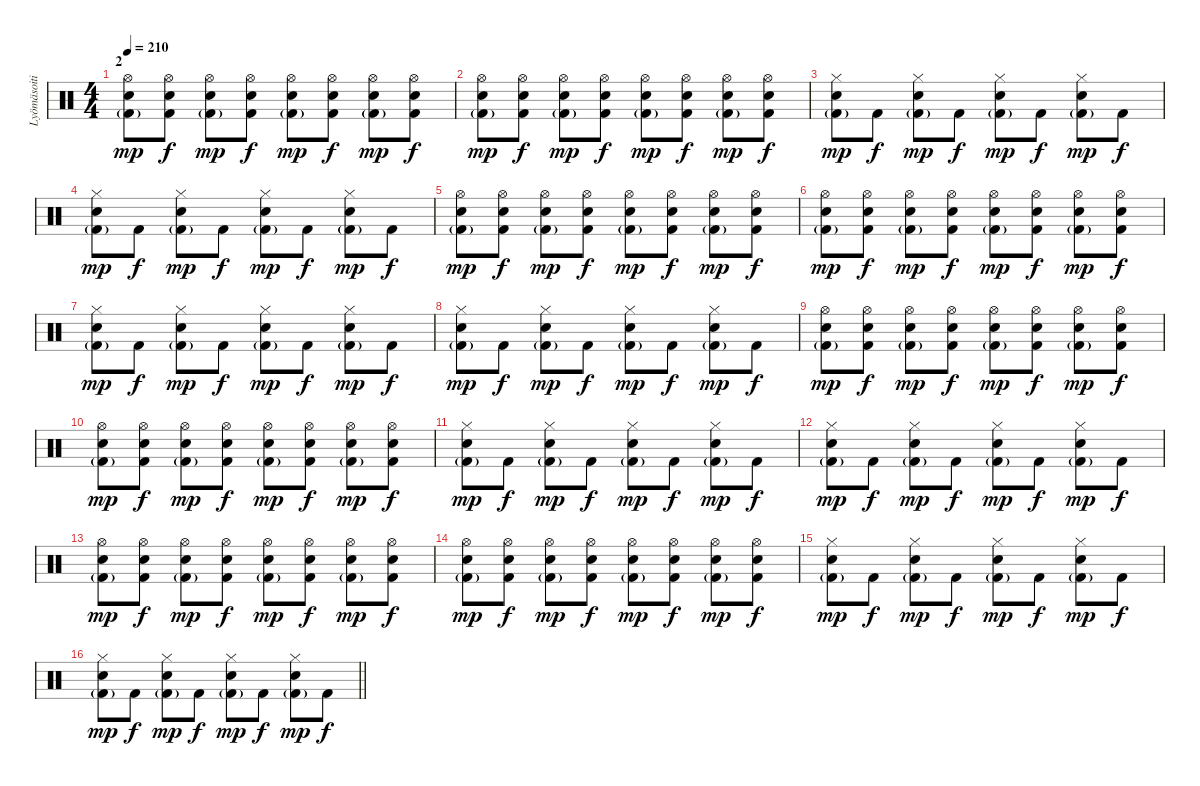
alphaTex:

\track ("Lyömäsoitin" "Lyömäsoiti") {instrument percussion}
\staff {score}
\articulation defaults
\ts (4 4)
\section ("" "2")
\tempo 210
\clef neutral
\ks c
("Hi-Hat (open)" "Snare (hit) 2" "Kick (hit) 2"{g}).8{dy mp} ("Hi-Hat (open)" "Snare (hit) 2" "Kick (hit) 2").8{dy f} ("Hi-Hat (open)" "Snare (hit) 2" "Kick (hit) 2"{g}).8{dy mp} ("Hi-Hat (open)" "Snare (hit) 2" "Kick (hit) 2").8{dy f} ("Hi-Hat (open)" "Snare (hit) 2" "Kick (hit) 2"{g}).8{dy mp} ("Hi-Hat (open)" "Snare (hit) 2" "Kick (hit) 2").8{dy f} ("Hi-Hat (open)" "Snare (hit) 2" "Kick (hit) 2"{g}).8{dy mp} ("Hi-Hat (open)" "Snare (hit) 2" "Kick (hit) 2").8{dy f} |
("Hi-Hat (open)" "Snare (hit) 2" "Kick (hit) 2"{g}).8{dy mp} ("Hi-Hat (open)" "Snare (hit) 2" "Kick (hit) 2").8{dy f} ("Hi-Hat (open)" "Snare (hit) 2" "Kick (hit) 2"{g}).8{dy mp} ("Hi-Hat (open)" "Snare (hit) 2" "Kick (hit) 2").8{dy f} ("Hi-Hat (open)" "Snare (hit) 2" "Kick (hit) 2"{g}).8{dy mp} ("Hi-Hat (open)" "Snare (hit) 2" "Kick (hit) 2").8{dy f} ("Hi-Hat (open)" "Snare (hit) 2" "Kick (hit) 2"{g}).8{dy mp} ("Hi-Hat (open)" "Snare (hit) 2" "Kick (hit) 2").8{dy f} |
("Hi-Hat (closed)" "Snare (hit) 2" "Kick (hit) 2"{g}).8{dy mp} "Kick (hit) 2".8{dy f} ("Hi-Hat (closed)" "Snare (hit) 2" "Kick (hit) 2"{g}).8{dy mp} "Kick (hit) 2".8{dy f} ("Hi-Hat (closed)" "Snare (hit) 2" "Kick (hit) 2"{g}).8{dy mp} "Kick (hit) 2".8{dy f} ("Hi-Hat (closed)" "Snare (hit) 2" "Kick (hit) 2"{g}).8{dy mp} "Kick (hit) 2".8{dy f} |
("Hi-Hat (closed)" "Snare (hit) 2" "Kick (hit) 2"{g}).8{dy mp} "Kick (hit) 2".8{dy f} ("Hi-Hat (closed)" "Snare (hit) 2" "Kick (hit) 2"{g}).8{dy mp} "Kick (hit) 2".8{dy f} ("Hi-Hat (closed)" "Snare (hit) 2" "Kick (hit) 2"{g}).8{dy mp} "Kick (hit) 2".8{dy f} ("Hi-Hat (closed)" "Snare (hit) 2" "Kick (hit) 2"{g}).8{dy mp} "Kick (hit) 2".8{dy f} |
("Hi-Hat (open)" "Snare (hit) 2" "Kick (hit) 2"{g}).8{dy mp} ("Hi-Hat (open)" "Snare (hit) 2" "Kick (hit) 2").8{dy f} ("Hi-Hat (open)" "Snare (hit) 2" "Kick (hit) 2"{g}).8{dy mp} ("Hi-Hat (open)" "Snare (hit) 2" "Kick (hit) 2").8{dy f} ("Hi-Hat (open)" "Snare (hit) 2" "Kick (hit) 2"{g}).8{dy mp} ("Hi-Hat (open)" "Snare (hit) 2" "Kick (hit) 2").8{dy f} ("Hi-Hat (open)" "Snare (hit) 2" "Kick (hit) 2"{g}).8{dy mp} ("Hi-Hat (open)" "Snare (hit) 2" "Kick (hit) 2").8{dy f} |
("Hi-Hat (open)" "Snare (hit) 2" "Kick (hit) 2"{g}).8{dy mp} ("Hi-Hat (open)" "Snare (hit) 2" "Kick (hit) 2").8{dy f} ("Hi-Hat (open)" "Snare (hit) 2" "Kick (hit) 2"{g}).8{dy mp} ("Hi-Hat (open)" "Snare (hit) 2" "Kick (hit) 2").8{dy f} ("Hi-Hat (open)" "Snare (hit) 2" "Kick (hit) 2"{g}).8{dy mp} ("Hi-Hat (open)" "Snare (hit) 2" "Kick (hit) 2").8{dy f} ("Hi-Hat (open)" "Snare (hit) 2" "Kick (hit) 2"{g}).8{dy mp} ("Hi-Hat (open)" "Snare (hit) 2" "Kick (hit) 2").8{dy f} |
("Hi-Hat (closed)" "Snare (hit) 2" "Kick (hit) 2"{g}).8{dy mp} "Kick (hit) 2".8{dy f} ("Hi-Hat (closed)" "Snare (hit) 2" "Kick (hit) 2"{g}).8{dy mp} "Kick (hit) 2".8{dy f} ("Hi-Hat (closed)" "Snare (hit) 2" "Kick (hit) 2"{g}).8{dy mp} "Kick (hit) 2".8{dy f} ("Hi-Hat (closed)" "Snare (hit) 2" "Kick (hit) 2"{g}).8{dy mp} "Kick (hit) 2".8{dy f} |
("Hi-Hat (closed)" "Snare (hit) 2" "Kick (hit) 2"{g}).8{dy mp} "Kick (hit) 2".8{dy f} ("Hi-Hat (closed)" "Snare (hit) 2" "Kick (hit) 2"{g}).8{dy mp} "Kick (hit) 2".8{dy f} ("Hi-Hat (closed)" "Snare (hit) 2" "Kick (hit) 2"{g}).8{dy mp} "Kick (hit) 2".8{dy f} ("Hi-Hat (closed)" "Snare (hit) 2" "Kick (hit) 2"{g}).8{dy mp} "Kick (hit) 2".8{dy f} |
("Hi-Hat (open)" "Snare (hit) 2" "Kick (hit) 2"{g}).8{dy mp} ("Hi-Hat (open)" "Snare (hit) 2" "Kick (hit) 2").8{dy f} ("Hi-Hat (open)" "Snare (hit) 2" "Kick (hit) 2"{g}).8{dy mp} ("Hi-Hat (open)" "Snare (hit) 2" "Kick (hit) 2").8{dy f} ("Hi-Hat (open)" "Snare (hit) 2" "Kick (hit) 2"{g}).8{dy mp} ("Hi-Hat (open)" "Snare (hit) 2" "Kick (hit) 2").8{dy f} ("Hi-Hat (open)" "Snare (hit) 2" "Kick (hit) 2"{g}).8{dy mp} ("Hi-Hat (open)" "Snare (hit) 2" "Kick (hit) 2").8{dy f} |
("Hi-Hat (open)" "Snare (hit) 2" "Kick (hit) 2"{g}).8{dy mp} ("Hi-Hat (open)" "Snare (hit) 2" "Kick (hit) 2").8{dy f} ("Hi-Hat (open)" "Snare (hit) 2" "Kick (hit) 2"{g}).8{dy mp} ("Hi-Hat (open)" "Snare (hit) 2" "Kick (hit) 2").8{dy f} ("Hi-Hat (open)" "Snare (hit) 2" "Kick (hit) 2"{g}).8{dy mp} ("Hi-Hat (open)" "Snare (hit) 2" "Kick (hit) 2").8{dy f} ("Hi-Hat (open)" "Snare (hit) 2" "Kick (hit) 2"{g}).8{dy mp} ("Hi-Hat (open)" "Snare (hit) 2" "Kick (hit) 2").8{dy f} |
("Hi-Hat (closed)" "Snare (hit) 2" "Kick (hit) 2"{g}).8{dy mp} "Kick (hit) 2".8{dy f} ("Hi-Hat (closed)" "Snare (hit) 2" "Kick (hit) 2"{g}).8{dy mp} "Kick (hit) 2".8{dy f} ("Hi-Hat (closed)" "Snare (hit) 2" "Kick (hit) 2"{g}).8{dy mp} "Kick (hit) 2".8{dy f} ("Hi-Hat (closed)" "Snare (hit) 2" "Kick (hit) 2"{g}).8{dy mp} "Kick (hit) 2".8{dy f} |
("Hi-Hat (closed)" "Snare (hit) 2" "Kick (hit) 2"{g}).8{dy mp} "Kick (hit) 2".8{dy f} ("Hi-Hat (closed)" "Snare (hit) 2" "Kick (hit) 2"{g}).8{dy mp} "Kick (hit) 2".8{dy f} ("Hi-Hat (closed)" "Snare (hit) 2" "Kick (hit) 2"{g}).8{dy mp} "Kick (hit) 2".8{dy f} ("Hi-Hat (closed)" "Snare (hit) 2" "Kick (hit) 2"{g}).8{dy mp} "Kick (hit) 2".8{dy f} |
("Hi-Hat (open)" "Snare (hit) 2" "Kick (hit) 2"{g}).8{dy mp} ("Hi-Hat (open)" "Snare (hit) 2" "Kick (hit) 2").8{dy f} ("Hi-Hat (open)" "Snare (hit) 2" "Kick (hit) 2"{g}).8{dy mp} ("Hi-Hat (open)" "Snare (hit) 2" "Kick (hit) 2").8{dy f} ("Hi-Hat (open)" "Snare (hit) 2" "Kick (hit) 2"{g}).8{dy mp} ("Hi-Hat (open)" "Snare (hit) 2" "Kick (hit) 2").8{dy f} ("Hi-Hat (open)" "Snare (hit) 2" "Kick (hit) 2"{g}).8{dy mp} ("Hi-Hat (open)" "Snare (hit) 2" "Kick (hit) 2").8{dy f} |
("Hi-Hat (open)" "Snare (hit) 2" "Kick (hit) 2"{g}).8{dy mp} ("Hi-Hat (open)" "Snare (hit) 2" "Kick (hit) 2").8{dy f} ("Hi-Hat (open)" "Snare (hit) 2" "Kick (hit) 2"{g}).8{dy mp} ("Hi-Hat (open)" "Snare (hit) 2" "Kick (hit) 2").8{dy f} ("Hi-Hat (open)" "Snare (hit) 2" "Kick (hit) 2"{g}).8{dy mp} ("Hi-Hat (open)" "Snare (hit) 2" "Kick (hit) 2").8{dy f} ("Hi-Hat (open)" "Snare (hit) 2" "Kick (hit) 2"{g}).8{dy mp} ("Hi-Hat (open)" "Snare (hit) 2" "Kick (hit) 2").8{dy f} |
("Hi-Hat (closed)" "Snare (hit) 2" "Kick (hit) 2"{g}).8{dy mp} "Kick (hit) 2".8{dy f} ("Hi-Hat (closed)" "Snare (hit) 2" "Kick (hit) 2"{g}).8{dy mp} "Kick (hit) 2".8{dy f} ("Hi-Hat (closed)" "Snare (hit) 2" "Kick (hit) 2"{g}).8{dy mp} "Kick (hit) 2".8{dy f} ("Hi-Hat (closed)" "Snare (hit) 2" "Kick (hit) 2"{g}).8{dy mp} "Kick (hit) 2".8{dy f} |
\barLineRight lightlight
("Hi-Hat (closed)" "Snare (hit) 2" "Kick (hit) 2"{g}).8{dy mp} "Kick (hit) 2".8{dy f} ("Hi-Hat (closed)" "Snare (hit) 2" "Kick (hit) 2"{g}).8{dy mp} "Kick (hit) 2".8{dy f} ("Hi-Hat (closed)" "Snare (hit) 2" "Kick (hit) 2"{g}).8{dy mp} "Kick (hit) 2".8{dy f} ("Hi-Hat (closed)" "Snare (hit) 2" "Kick (hit) 2"{g}).8{dy mp} "Kick (hit) 2".8{dy f}
